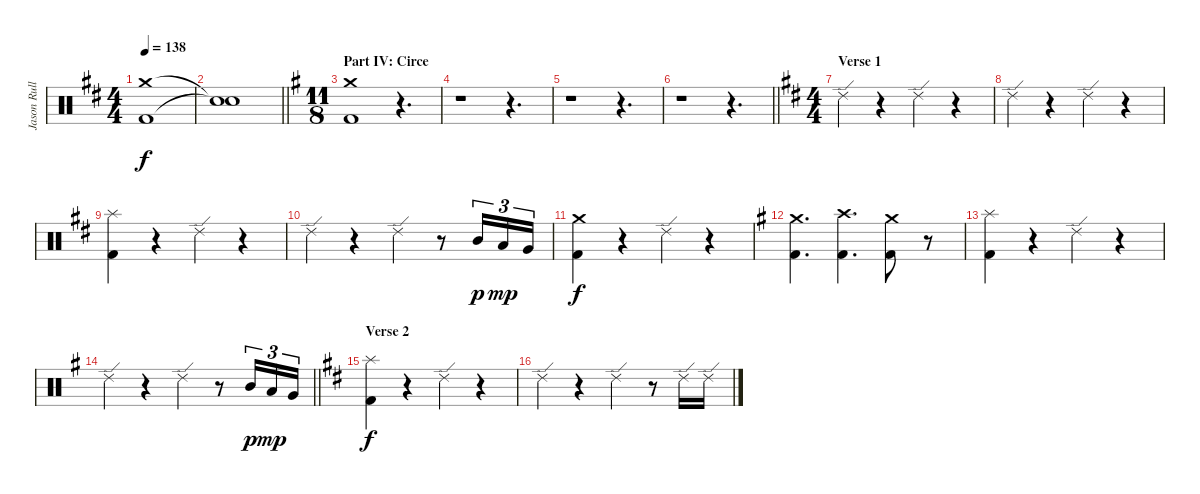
\track ("Jason Rullo (drums)" "Jason Rull") {instrument percussion}
\staff {score}
\articulation defaults
\ts (4 4)
\tempo 138
\clef neutral
\ks bminor
("Crash medium (hit)" "Kick (hit) 2").1{dy f} |
\barLineRight lightlight
("Snare (hit)"{t} "Snare (hit)"{t}).1 |
\ts (11 8)
\section ("" "Part IV: Circe")
\ks eminor
("Crash medium (hit)" "Kick (hit) 2").1 r.4{d} |
r.1 r.4{d} |
r.1 r.4{d} |
\barLineRight lightlight
r.1 r.4{d} |
\ts (4 4)
\section ("" "Verse 1")
\ks bminor "Ride (edge) 2".4
r.4 "Ride (edge) 2".4 r.4 |
"Ride (edge) 2".4 r.4 "Ride (edge) 2".4 r.4 |
("Splash (hit)" "Kick (hit) 2").4 r.4 "Ride (edge) 2".4 r.4 |
"Ride (edge) 2".4 r.4 "Ride (edge) 2".4 r.8 "Mid Tom (hit)".16{tu (3 2) dy p} "Low Tom (hit)".16{tu (3 2) dy mp} "Very Low Tom (hit)".16{tu (3 2)} |
("Crash medium (hit)" "Kick (hit) 2").4{dy f} r.4 "Ride (edge) 2".4 r.4 |
\ks eminor
("Crash medium (hit)" "Kick (hit) 2").4{d} ("Crash high (hit)" "Kick (hit) 2").4{d} ("Crash medium (hit)" "Kick (hit) 2").8 r.8 |
("Splash (hit)" "Kick (hit) 2").4 r.4 "Ride (edge) 2".4 r.4 |
\barLineRight lightlight "Ride (edge) 2".4
r.4 "Ride (edge) 2".4 r.8 "Mid Tom (hit)".16{tu (3 2) dy p} "Low Tom (hit)".16{tu (3 2) dy mp} "Very Low Tom (hit)".16{tu (3 2)} |
\section ("" "Verse 2")
\ks bminor
("Splash (hit)" "Kick (hit) 2").4{dy f} r.4 "Ride (edge) 2".4 r.4 |
"Ride (edge) 2".4 r.4 "Ride (edge) 2".4 r.8 "Ride (edge) 2".16 "Ride (edge) 2".16
